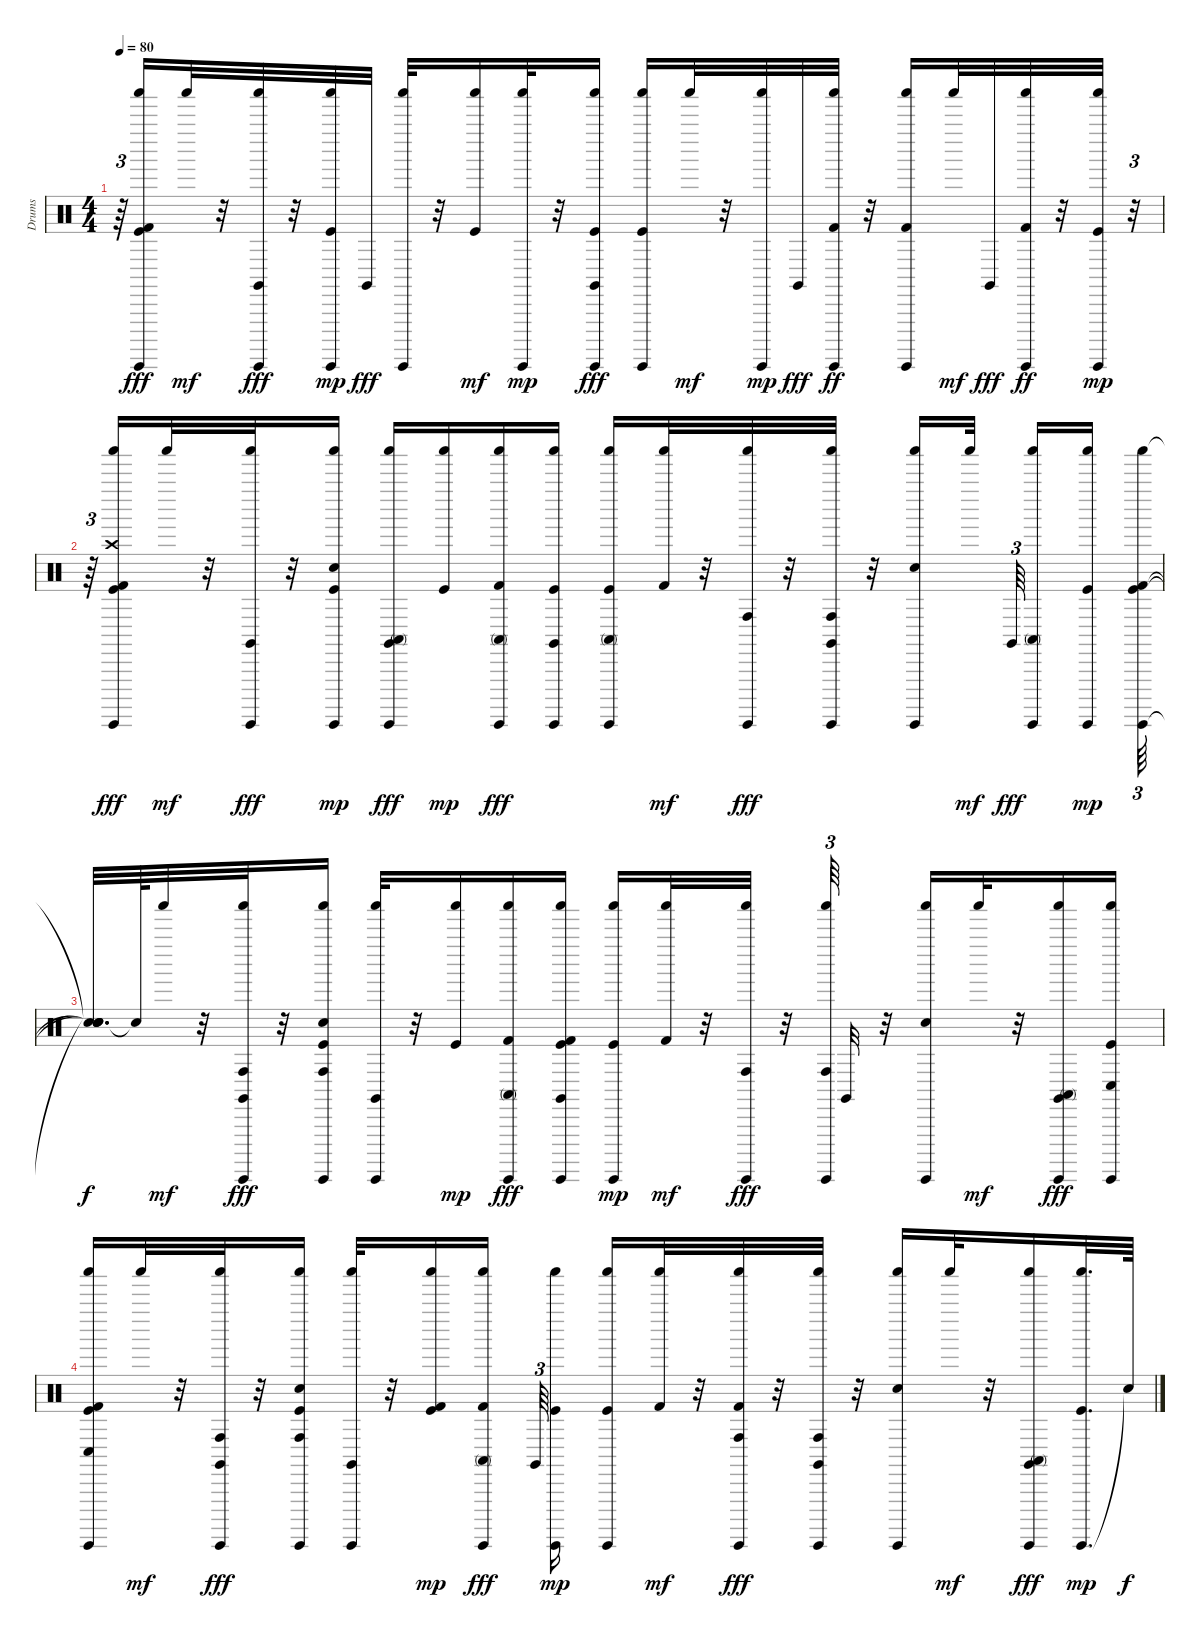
\track ("Drums" "Drums") {instrument percussion}
\staff {score}
\articulation defaults
\ts (4 4)
\tempo 80
\clef neutral
\ks c
r.64{tu (3 2) dy f} ("Kick (hit)" "Guiro (hit)" "Kick (hit) 2" "Shaker (hit)").16{dy fff} "Shaker (hit)".32{dy mf} r.32 ("Guiro (hit)" "Shaker (hit)" "Claves (hit)").32{dy fff} r.32 ("Kick (hit)" "Guiro (hit)" "Shaker (hit)").32{dy mp} "Claves (hit)".32{dy fff} ("Guiro (hit)" "Shaker (hit)").32 r.32 ("Kick (hit)" "Shaker (hit)").16{dy mf} ("Guiro (hit)" "Shaker (hit)").32{dy mp} r.32 ("Kick (hit)" "Guiro (hit)" "Shaker (hit)" "Claves (hit)").16{dy fff} ("Kick (hit)" "Guiro (hit)" "Shaker (hit)").16 "Shaker (hit)".32{dy mf} r.32 ("Guiro (hit)" "Shaker (hit)").32{dy mp} "Claves (hit)".32{dy fff} ("Guiro (hit)" "Shaker (hit)" "Kick (hit) 2").32{dy ff} r.32 ("Guiro (hit)" "Shaker (hit)" "Kick (hit) 2").16 "Shaker (hit)".32{dy mf} "Claves (hit)".32{dy fff} ("Guiro (hit)" "Shaker (hit)" "Kick (hit) 2").32{dy ff} r.32 ("Guiro (hit)" "Shaker (hit)" "Kick (hit)").32{dy mp} r.32{tu (3 2)} |
r.64{tu (3 2)} ("Kick (hit) 2" "Guiro (hit)" "Shaker (hit)" "Kick (hit)" "Crash high (hit)").16{dy fff} "Shaker (hit)".32{dy mf} r.32 ("Guiro (hit)" "Shaker (hit)" "Claves (hit)").32{dy fff} r.32 ("Electric Snare (hit)" "Guiro (hit)" "Shaker (hit)" "Kick (hit)").16{dy mp} ("Claves (hit)" "Guiro (hit)" "Shaker (hit)" "Conga high (mute)").16{dy fff} ("Shaker (hit)" "Kick (hit)").16{dy mp} ("Kick (hit) 2" "Guiro (hit)" "Shaker (hit)" "Conga high (mute)").16{dy fff} ("Guiro (hit)" "Shaker (hit)" "Kick (hit)" "Claves (hit)").16 ("Guiro (hit)" "Shaker (hit)" "Kick (hit)" "Conga high (mute)").16 ("Kick (hit) 2" "Shaker (hit)").32{dy mf} r.32 ("Guiro (hit)" "Shaker (hit)" "Conga high (hit)").32{dy fff} r.32 ("Claves (hit)" "Guiro (hit)" "Shaker (hit)" "Conga high (hit)").32 r.32 ("Electric Snare (hit)" "Guiro (hit)" "Shaker (hit)").16 "Shaker (hit)".32{dy mf} "Claves (hit)".64{tu (3 2) dy fff} ("Guiro (hit)" "Shaker (hit)" "Conga high (mute)").16 ("Guiro (hit)" "Shaker (hit)" "Kick (hit)").16{dy mp} ("Kick (hit) 2" "Guiro (hit)" "Shaker (hit)" "Kick (hit)").64{tu (3 2)} |
("Snare (hit)"{t} "Snare (hit)"{t} "Snare (hit)"{t} "Snare (hit)"{t}).32{d dy f} "Snare (hit)"{t}.64 "Shaker (hit)".32{dy mf} r.32 ("Claves (hit)" "Guiro (hit)" "Shaker (hit)" "Conga high (hit)").32{dy fff} r.32 ("Electric Snare (hit)" "Guiro (hit)" "Shaker (hit)" "Kick (hit)" "Conga high (hit)").16 ("Claves (hit)" "Guiro (hit)" "Shaker (hit)").32 r.32 ("Shaker (hit)" "Kick (hit)").16{dy mp} ("Kick (hit) 2" "Guiro (hit)" "Shaker (hit)" "Conga high (mute)").16{dy fff} ("Kick (hit) 2" "Guiro (hit)" "Shaker (hit)" "Kick (hit)" "Claves (hit)").16 ("Guiro (hit)" "Shaker (hit)" "Kick (hit)").16{dy mp} ("Kick (hit) 2" "Shaker (hit)").32{dy mf} r.32 ("Guiro (hit)" "Shaker (hit)" "Conga high (hit)").32{dy fff} r.32 ("Guiro (hit)" "Shaker (hit)" "Conga high (hit)").64{tu (3 2)} "Claves (hit)".32 r.32 ("Electric Snare (hit)" "Guiro (hit)" "Shaker (hit)").16 "Shaker (hit)".32{dy mf} r.32 ("Guiro (hit)" "Shaker (hit)" "Conga high (mute)" "Claves (hit)").16{dy fff} ("Guiro (hit)" "Shaker (hit)" "Kick (hit)" "Conga low (hit)").16 |
("Kick (hit) 2" "Guiro (hit)" "Shaker (hit)" "Kick (hit)" "Conga low (hit)").16 "Shaker (hit)".32{dy mf} r.32 ("Guiro (hit)" "Shaker (hit)" "Conga high (hit)" "Claves (hit)").32{dy fff} r.32 ("Electric Snare (hit)" "Guiro (hit)" "Shaker (hit)" "Kick (hit)" "Conga high (hit)").16 ("Claves (hit)" "Guiro (hit)" "Shaker (hit)").32 r.32 ("Kick (hit) 2" "Shaker (hit)" "Kick (hit)").16{dy mp} ("Kick (hit) 2" "Guiro (hit)" "Shaker (hit)" "Conga high (mute)").16{dy fff} "Claves (hit)".64{tu (3 2)} ("Guiro (hit)" "Shaker (hit)" "Kick (hit)").16{dy mp} ("Guiro (hit)" "Shaker (hit)" "Kick (hit)").16 ("Kick (hit) 2" "Shaker (hit)").32{dy mf} r.32 ("Kick (hit) 2" "Guiro (hit)" "Shaker (hit)" "Conga high (hit)").32{dy fff} r.32 ("Guiro (hit)" "Shaker (hit)" "Conga high (hit)" "Claves (hit)").32 r.32 ("Electric Snare (hit)" "Guiro (hit)" "Shaker (hit)").16 "Shaker (hit)".32{dy mf} r.32 ("Claves (hit)" "Guiro (hit)" "Shaker (hit)" "Conga high (mute)").16{dy fff} ("Guiro (hit)" "Shaker (hit)" "Kick (hit)").32{d dy mp} "Snare (hit)"{t}.64{dy f}
